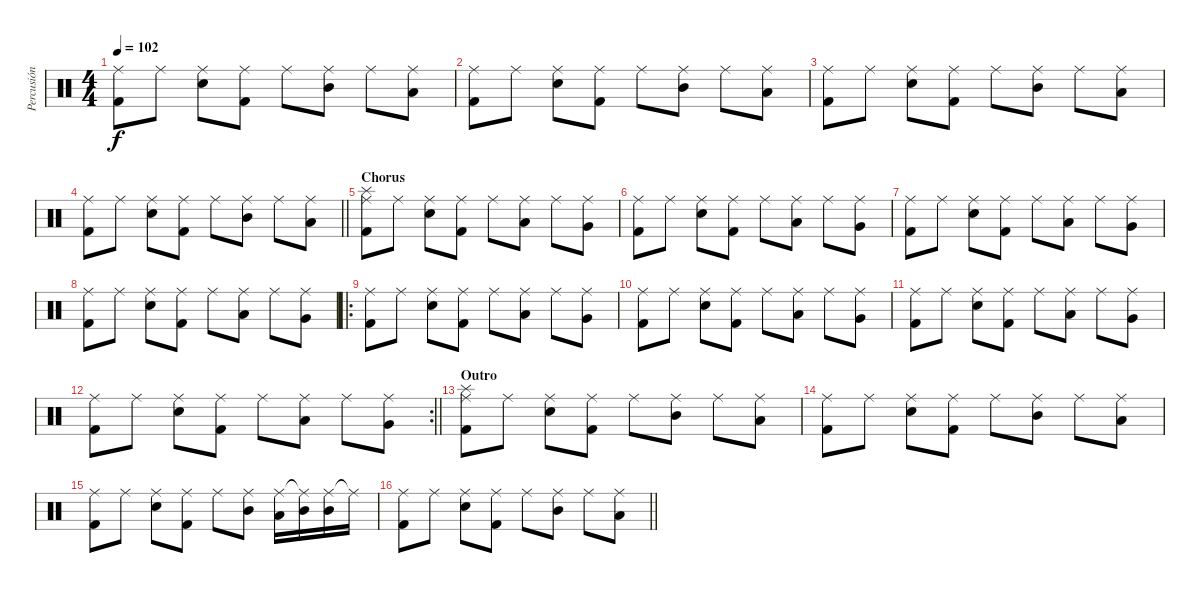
\track ("Percusión" "Percusión") {instrument percussion}
\staff {score}
\articulation defaults
\ts (4 4)
\tempo 102
\clef neutral
\ks c
("Ride (middle)" "Kick (hit) 2").8{dy f} "Ride (middle)".8 ("Ride (middle)" "Snare (hit) 2").8 ("Ride (middle)" "Kick (hit) 2").8 "Ride (middle)".8 ("Ride (middle)" "Mid Tom (hit)").8 "Ride (middle)".8 ("Ride (middle)" "Low Tom (hit)").8 |
("Ride (middle)" "Kick (hit) 2").8 "Ride (middle)".8 ("Ride (middle)" "Snare (hit) 2").8 ("Ride (middle)" "Kick (hit) 2").8 "Ride (middle)".8 ("Ride (middle)" "Mid Tom (hit)").8 "Ride (middle)".8 ("Ride (middle)" "Low Tom (hit)").8 |
("Ride (middle)" "Kick (hit) 2").8 "Ride (middle)".8 ("Ride (middle)" "Snare (hit) 2").8 ("Ride (middle)" "Kick (hit) 2").8 "Ride (middle)".8 ("Ride (middle)" "Mid Tom (hit)").8 "Ride (middle)".8 ("Ride (middle)" "Low Tom (hit)").8 |
\barLineRight lightlight
("Ride (middle)" "Kick (hit) 2").8 "Ride (middle)".8 ("Ride (middle)" "Snare (hit) 2").8 ("Ride (middle)" "Kick (hit) 2").8 "Ride (middle)".8 ("Ride (middle)" "Mid Tom (hit)").8 "Ride (middle)".8 ("Ride (middle)" "Low Tom (hit)").8 |
\section ("" "Chorus")
("Splash (hit)" "Ride (middle)" "Kick (hit) 2").8 "Ride (middle)".8 ("Ride (middle)" "Snare (hit) 2").8 ("Ride (middle)" "Kick (hit) 2").8 "Ride (middle)".8 ("Ride (middle)" "Low Tom (hit)").8 "Ride (middle)".8 ("Ride (middle)" "Very Low Tom (hit)").8 |
("Ride (middle)" "Kick (hit) 2").8 "Ride (middle)".8 ("Ride (middle)" "Snare (hit) 2").8 ("Ride (middle)" "Kick (hit) 2").8 "Ride (middle)".8 ("Ride (middle)" "Low Tom (hit)").8 "Ride (middle)".8 ("Ride (middle)" "Very Low Tom (hit)").8 |
("Ride (middle)" "Kick (hit) 2").8 "Ride (middle)".8 ("Ride (middle)" "Snare (hit) 2").8 ("Ride (middle)" "Kick (hit) 2").8 "Ride (middle)".8 ("Ride (middle)" "Low Tom (hit)").8 "Ride (middle)".8 ("Ride (middle)" "Very Low Tom (hit)").8 |
("Ride (middle)" "Kick (hit) 2").8 "Ride (middle)".8 ("Ride (middle)" "Snare (hit) 2").8 ("Ride (middle)" "Kick (hit) 2").8 "Ride (middle)".8 ("Ride (middle)" "Low Tom (hit)").8 "Ride (middle)".8 ("Ride (middle)" "Very Low Tom (hit)").8 |
\ro
("Ride (middle)" "Kick (hit) 2").8 "Ride (middle)".8 ("Ride (middle)" "Snare (hit) 2").8 ("Ride (middle)" "Kick (hit) 2").8 "Ride (middle)".8 ("Ride (middle)" "Low Tom (hit)").8 "Ride (middle)".8 ("Ride (middle)" "Very Low Tom (hit)").8 |
("Ride (middle)" "Kick (hit) 2").8 "Ride (middle)".8 ("Ride (middle)" "Snare (hit) 2").8 ("Ride (middle)" "Kick (hit) 2").8 "Ride (middle)".8 ("Ride (middle)" "Low Tom (hit)").8 "Ride (middle)".8 ("Ride (middle)" "Very Low Tom (hit)").8 |
("Ride (middle)" "Kick (hit) 2").8 "Ride (middle)".8 ("Ride (middle)" "Snare (hit) 2").8 ("Ride (middle)" "Kick (hit) 2").8 "Ride (middle)".8 ("Ride (middle)" "Low Tom (hit)").8 "Ride (middle)".8 ("Ride (middle)" "Very Low Tom (hit)").8 |
\rc 2
\barLineRight lightlight
("Ride (middle)" "Kick (hit) 2").8 "Ride (middle)".8 ("Ride (middle)" "Snare (hit) 2").8 ("Ride (middle)" "Kick (hit) 2").8 "Ride (middle)".8 ("Ride (middle)" "Low Tom (hit)").8 "Ride (middle)".8 ("Ride (middle)" "Very Low Tom (hit)").8 |
\section ("" "Outro")
("Splash (hit)" "Ride (middle)" "Kick (hit) 2").8 "Ride (middle)".8 ("Ride (middle)" "Snare (hit) 2").8 ("Ride (middle)" "Kick (hit) 2").8 "Ride (middle)".8 ("Ride (middle)" "Mid Tom (hit)").8 "Ride (middle)".8 ("Ride (middle)" "Low Tom (hit)").8 |
("Ride (middle)" "Kick (hit) 2").8 "Ride (middle)".8 ("Ride (middle)" "Snare (hit) 2").8 ("Ride (middle)" "Kick (hit) 2").8 "Ride (middle)".8 ("Ride (middle)" "Mid Tom (hit)").8 "Ride (middle)".8 ("Ride (middle)" "Low Tom (hit)").8 |
("Ride (middle)" "Kick (hit) 2").8 "Ride (middle)".8 ("Ride (middle)" "Snare (hit) 2").8 ("Ride (middle)" "Kick (hit) 2").8 "Ride (middle)".8 ("Ride (middle)" "Mid Tom (hit)").8 ("Ride (middle)" "Low Tom (hit)").16 ("Ride (middle)"{t} "Mid Tom (hit)").16 ("Ride (middle)" "Mid Tom (hit)").16 "Ride (middle)"{t}.16 |
\barLineRight lightlight
("Ride (middle)" "Kick (hit) 2").8 "Ride (middle)".8 ("Ride (middle)" "Snare (hit) 2").8 ("Ride (middle)" "Kick (hit) 2").8 "Ride (middle)".8 ("Ride (middle)" "Mid Tom (hit)").8 "Ride (middle)".8 ("Ride (middle)" "Low Tom (hit)").8
